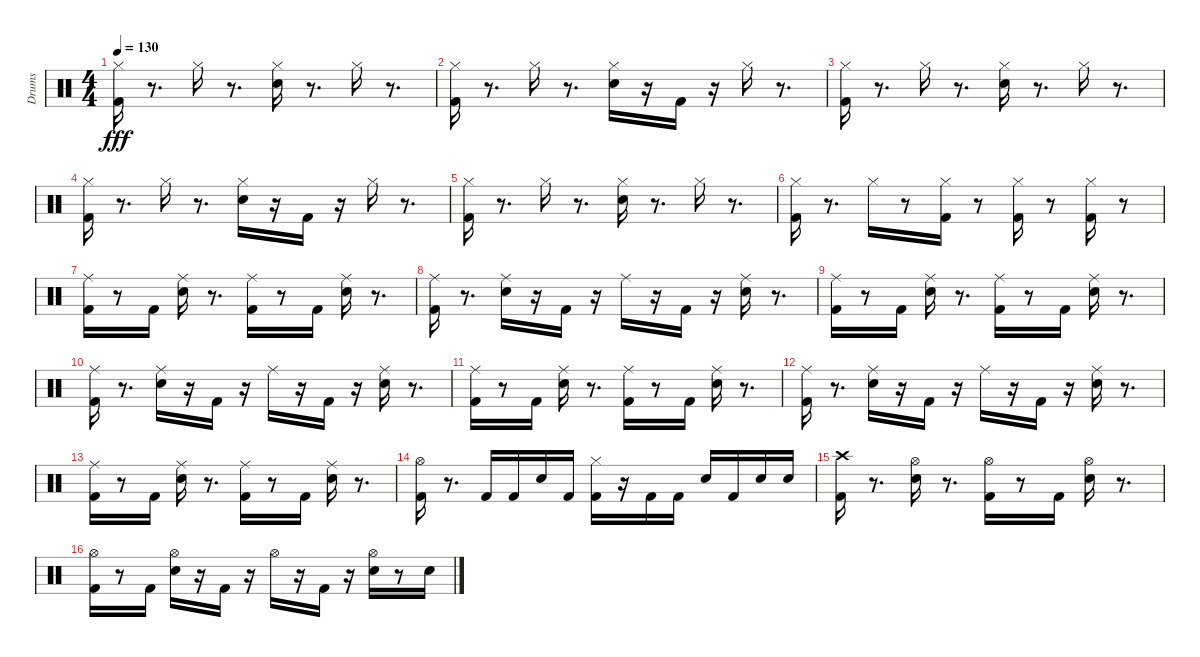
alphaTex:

\track ("Drums" "Drums") {instrument percussion}
\staff {score}
\articulation defaults
\ts (4 4)
\tempo 130
\clef neutral
\ks c
("Hi-Hat (closed)" "Kick (hit) 2").16{dy fff} r.8{d} "Hi-Hat (closed)".16 r.8{d} ("Hi-Hat (closed)" "Snare (hit) 2").16 r.8{d} "Hi-Hat (closed)".16 r.8{d} |
("Hi-Hat (closed)" "Kick (hit) 2").16 r.8{d} "Hi-Hat (closed)".16 r.8{d} ("Hi-Hat (closed)" "Snare (hit) 2").16 r.16 "Kick (hit) 2".16 r.16 "Hi-Hat (closed)".16 r.8{d} |
("Hi-Hat (closed)" "Kick (hit) 2").16 r.8{d} "Hi-Hat (closed)".16 r.8{d} ("Hi-Hat (closed)" "Snare (hit) 2").16 r.8{d} "Hi-Hat (closed)".16 r.8{d} |
("Hi-Hat (closed)" "Kick (hit) 2").16 r.8{d} "Hi-Hat (closed)".16 r.8{d} ("Hi-Hat (closed)" "Snare (hit) 2").16 r.16 "Kick (hit) 2".16 r.16 "Hi-Hat (closed)".16 r.8{d} |
("Hi-Hat (closed)" "Kick (hit) 2").16 r.8{d} "Hi-Hat (closed)".16 r.8{d} ("Hi-Hat (closed)" "Snare (hit) 2").16 r.8{d} "Hi-Hat (closed)".16 r.8{d} |
("Hi-Hat (closed)" "Kick (hit) 2").16 r.8{d} "Hi-Hat (closed)".16 r.8 ("Hi-Hat (closed)" "Kick (hit) 2").16 r.8 ("Hi-Hat (closed)" "Kick (hit) 2").16 r.8 ("Hi-Hat (closed)" "Kick (hit) 2").16 r.8 |
("Ride (middle)" "Kick (hit) 2").16 r.8 "Kick (hit) 2".16 ("Ride (middle)" "Snare (hit) 2").16 r.8{d} ("Ride (middle)" "Kick (hit) 2").16 r.8 "Kick (hit) 2".16 ("Ride (middle)" "Snare (hit) 2").16 r.8{d} |
("Ride (middle)" "Kick (hit) 2").16 r.8{d} ("Ride (middle)" "Snare (hit) 2").16 r.16 "Kick (hit) 2".16 r.16 "Ride (middle)".16 r.16 "Kick (hit) 2".16 r.16 ("Ride (middle)" "Snare (hit) 2").16 r.8{d} |
("Ride (middle)" "Kick (hit) 2").16 r.8 "Kick (hit) 2".16 ("Ride (middle)" "Snare (hit) 2").16 r.8{d} ("Ride (middle)" "Kick (hit) 2").16 r.8 "Kick (hit) 2".16 ("Ride (middle)" "Snare (hit) 2").16 r.8{d} |
("Ride (middle)" "Kick (hit) 2").16 r.8{d} ("Ride (middle)" "Snare (hit) 2").16 r.16 "Kick (hit) 2".16 r.16 "Ride (middle)".16 r.16 "Kick (hit) 2".16 r.16 ("Ride (middle)" "Snare (hit) 2").16 r.8{d} |
("Ride (middle)" "Kick (hit) 2").16 r.8 "Kick (hit) 2".16 ("Ride (middle)" "Snare (hit) 2").16 r.8{d} ("Ride (middle)" "Kick (hit) 2").16 r.8 "Kick (hit) 2".16 ("Ride (middle)" "Snare (hit) 2").16 r.8{d} |
("Ride (middle)" "Kick (hit) 2").16 r.8{d} ("Ride (middle)" "Snare (hit) 2").16 r.16 "Kick (hit) 2".16 r.16 "Ride (middle)".16 r.16 "Kick (hit) 2".16 r.16 ("Ride (middle)" "Snare (hit) 2").16 r.8{d} |
("Ride (middle)" "Kick (hit) 2").16 r.8 "Kick (hit) 2".16 ("Ride (middle)" "Snare (hit) 2").16 r.8{d} ("Ride (middle)" "Kick (hit) 2").16 r.8 "Kick (hit) 2".16 ("Ride (middle)" "Snare (hit) 2").16 r.8{d} |
("Hi-Hat (open)" "Kick (hit) 2").16 r.8{d} "Kick (hit) 2".16 "Kick (hit) 2".16 "Snare (hit) 2".16 "Kick (hit) 2".16 ("Hi-Hat (closed)" "Kick (hit) 2").16 r.16 "Kick (hit) 2".16 "Kick (hit) 2".16 "Snare (hit) 2".16 "Kick (hit) 2".16 "Snare (hit) 2".16 "Snare (hit) 2".16 |
("Crash high (hit)" "Kick (hit) 2").16 r.8{d} ("Hi-Hat (open)" "Snare (hit) 2").16 r.8{d} ("Hi-Hat (open)" "Kick (hit) 2").16 r.8 "Kick (hit) 2".16 ("Hi-Hat (open)" "Snare (hit) 2").16 r.8{d} |
("Hi-Hat (open)" "Kick (hit) 2").16 r.8 "Kick (hit) 2".16 ("Hi-Hat (open)" "Snare (hit) 2").16 r.16 "Kick (hit) 2".16 r.16 "Hi-Hat (open)".16 r.16 "Kick (hit) 2".16 r.16 ("Hi-Hat (open)" "Snare (hit) 2").16 r.8 "Snare (hit) 2".16
